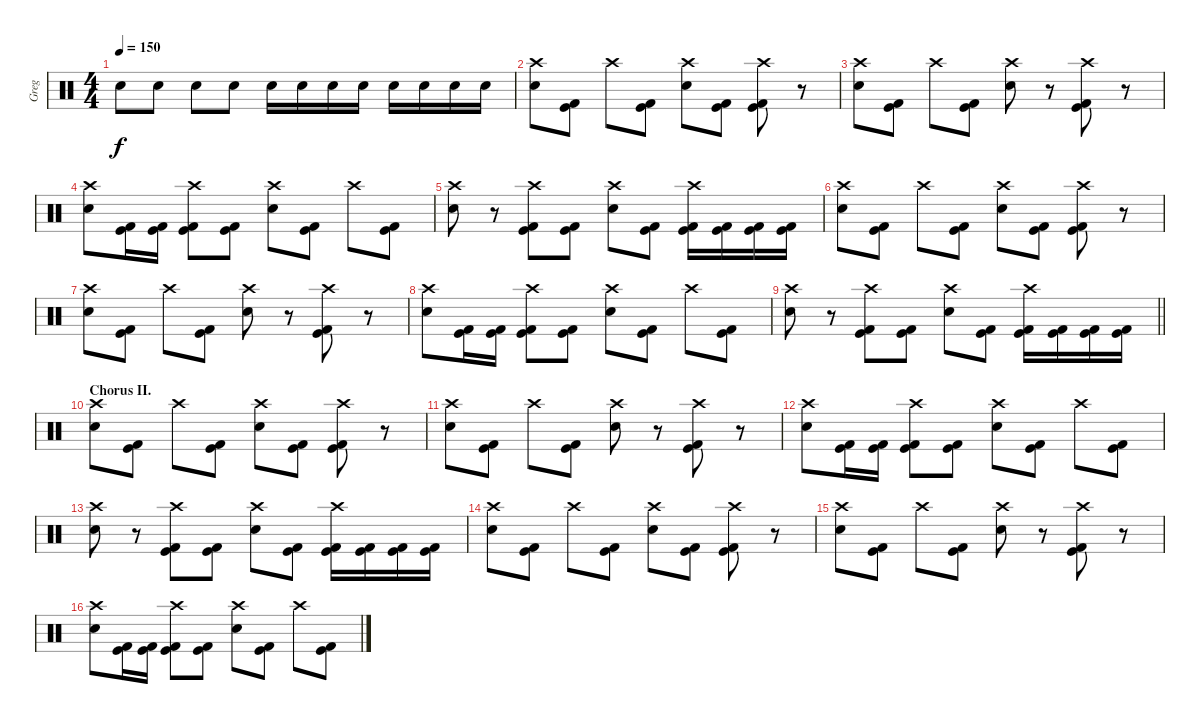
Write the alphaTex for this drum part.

\track ("Greg" "Greg") {instrument percussion}
\staff {score}
\articulation defaults
\ts (4 4)
\tempo 150
\clef neutral
\ks c "Snare (hit) 2".8{dy f} "Snare (hit) 2".8 "Snare (hit) 2".8 "Snare (hit) 2".8 "Snare (hit) 2".16 "Snare (hit) 2".16 "Snare (hit) 2".16 "Snare (hit) 2".16 "Snare (hit) 2".16 "Snare (hit) 2".16 "Snare (hit) 2".16 "Snare (hit) 2".16
|
("Crash high (hit)" "Snare (hit) 2").8 ("Kick (hit)" "Kick (hit) 2").8 "Crash high (hit)".8 ("Kick (hit)" "Kick (hit) 2").8 ("Crash high (hit)" "Snare (hit) 2").8 ("Kick (hit)" "Kick (hit) 2").8 ("Crash high (hit)" "Kick (hit)" "Kick (hit) 2").8 r.8 |
("Crash high (hit)" "Snare (hit) 2").8 ("Kick (hit)" "Kick (hit) 2").8 "Crash high (hit)".8 ("Kick (hit)" "Kick (hit) 2").8 ("Crash high (hit)" "Snare (hit) 2").8 r.8 ("Crash high (hit)" "Kick (hit)" "Kick (hit) 2").8 r.8 |
("Crash high (hit)" "Snare (hit) 2").8 ("Kick (hit)" "Kick (hit) 2").16 ("Kick (hit)" "Kick (hit) 2").16 ("Crash high (hit)" "Kick (hit)" "Kick (hit) 2").8 ("Kick (hit)" "Kick (hit) 2").8 ("Crash high (hit)" "Snare (hit) 2").8 ("Kick (hit)" "Kick (hit) 2").8 "Crash high (hit)".8 ("Kick (hit)" "Kick (hit) 2").8 |
("Crash high (hit)" "Snare (hit) 2").8 r.8 ("Crash high (hit)" "Kick (hit)" "Kick (hit) 2").8 ("Kick (hit)" "Kick (hit) 2").8 ("Crash high (hit)" "Snare (hit) 2").8 ("Kick (hit)" "Kick (hit) 2").8 ("Crash high (hit)" "Kick (hit)" "Kick (hit) 2").16 ("Kick (hit)" "Kick (hit) 2").16 ("Kick (hit)" "Kick (hit) 2").16 ("Kick (hit)" "Kick (hit) 2").16 |
("Crash high (hit)" "Snare (hit) 2").8 ("Kick (hit)" "Kick (hit) 2").8 "Crash high (hit)".8 ("Kick (hit)" "Kick (hit) 2").8 ("Crash high (hit)" "Snare (hit) 2").8 ("Kick (hit)" "Kick (hit) 2").8 ("Crash high (hit)" "Kick (hit)" "Kick (hit) 2").8 r.8 |
("Crash high (hit)" "Snare (hit) 2").8 ("Kick (hit)" "Kick (hit) 2").8 "Crash high (hit)".8 ("Kick (hit)" "Kick (hit) 2").8 ("Crash high (hit)" "Snare (hit) 2").8 r.8 ("Crash high (hit)" "Kick (hit)" "Kick (hit) 2").8 r.8 |
("Crash high (hit)" "Snare (hit) 2").8 ("Kick (hit)" "Kick (hit) 2").16 ("Kick (hit)" "Kick (hit) 2").16 ("Crash high (hit)" "Kick (hit)" "Kick (hit) 2").8 ("Kick (hit)" "Kick (hit) 2").8 ("Crash high (hit)" "Snare (hit) 2").8 ("Kick (hit)" "Kick (hit) 2").8 "Crash high (hit)".8 ("Kick (hit)" "Kick (hit) 2").8 |
\barLineRight lightlight
("Crash high (hit)" "Snare (hit) 2").8 r.8 ("Crash high (hit)" "Kick (hit)" "Kick (hit) 2").8 ("Kick (hit)" "Kick (hit) 2").8 ("Crash high (hit)" "Snare (hit) 2").8 ("Kick (hit)" "Kick (hit) 2").8 ("Crash high (hit)" "Kick (hit)" "Kick (hit) 2").16 ("Kick (hit)" "Kick (hit) 2").16 ("Kick (hit)" "Kick (hit) 2").16 ("Kick (hit)" "Kick (hit) 2").16 |
\section ("" "Chorus II.")
("Crash high (hit)" "Snare (hit) 2").8 ("Kick (hit)" "Kick (hit) 2").8 "Crash high (hit)".8 ("Kick (hit)" "Kick (hit) 2").8 ("Crash high (hit)" "Snare (hit) 2").8 ("Kick (hit)" "Kick (hit) 2").8 ("Crash high (hit)" "Kick (hit)" "Kick (hit) 2").8 r.8 |
("Crash high (hit)" "Snare (hit) 2").8 ("Kick (hit)" "Kick (hit) 2").8 "Crash high (hit)".8 ("Kick (hit)" "Kick (hit) 2").8 ("Crash high (hit)" "Snare (hit) 2").8 r.8 ("Crash high (hit)" "Kick (hit)" "Kick (hit) 2").8 r.8 |
("Crash high (hit)" "Snare (hit) 2").8 ("Kick (hit)" "Kick (hit) 2").16 ("Kick (hit)" "Kick (hit) 2").16 ("Crash high (hit)" "Kick (hit)" "Kick (hit) 2").8 ("Kick (hit)" "Kick (hit) 2").8 ("Crash high (hit)" "Snare (hit) 2").8 ("Kick (hit)" "Kick (hit) 2").8 "Crash high (hit)".8 ("Kick (hit)" "Kick (hit) 2").8 |
("Crash high (hit)" "Snare (hit) 2").8 r.8 ("Crash high (hit)" "Kick (hit)" "Kick (hit) 2").8 ("Kick (hit)" "Kick (hit) 2").8 ("Crash high (hit)" "Snare (hit) 2").8 ("Kick (hit)" "Kick (hit) 2").8 ("Crash high (hit)" "Kick (hit)" "Kick (hit) 2").16 ("Kick (hit)" "Kick (hit) 2").16 ("Kick (hit)" "Kick (hit) 2").16 ("Kick (hit)" "Kick (hit) 2").16 |
("Crash high (hit)" "Snare (hit) 2").8 ("Kick (hit)" "Kick (hit) 2").8 "Crash high (hit)".8 ("Kick (hit)" "Kick (hit) 2").8 ("Crash high (hit)" "Snare (hit) 2").8 ("Kick (hit)" "Kick (hit) 2").8 ("Crash high (hit)" "Kick (hit)" "Kick (hit) 2").8 r.8 |
("Crash high (hit)" "Snare (hit) 2").8 ("Kick (hit)" "Kick (hit) 2").8 "Crash high (hit)".8 ("Kick (hit)" "Kick (hit) 2").8 ("Crash high (hit)" "Snare (hit) 2").8 r.8 ("Crash high (hit)" "Kick (hit)" "Kick (hit) 2").8 r.8 |
("Crash high (hit)" "Snare (hit) 2").8 ("Kick (hit)" "Kick (hit) 2").16 ("Kick (hit)" "Kick (hit) 2").16 ("Crash high (hit)" "Kick (hit)" "Kick (hit) 2").8 ("Kick (hit)" "Kick (hit) 2").8 ("Crash high (hit)" "Snare (hit) 2").8 ("Kick (hit)" "Kick (hit) 2").8 "Crash high (hit)".8 ("Kick (hit)" "Kick (hit) 2").8
